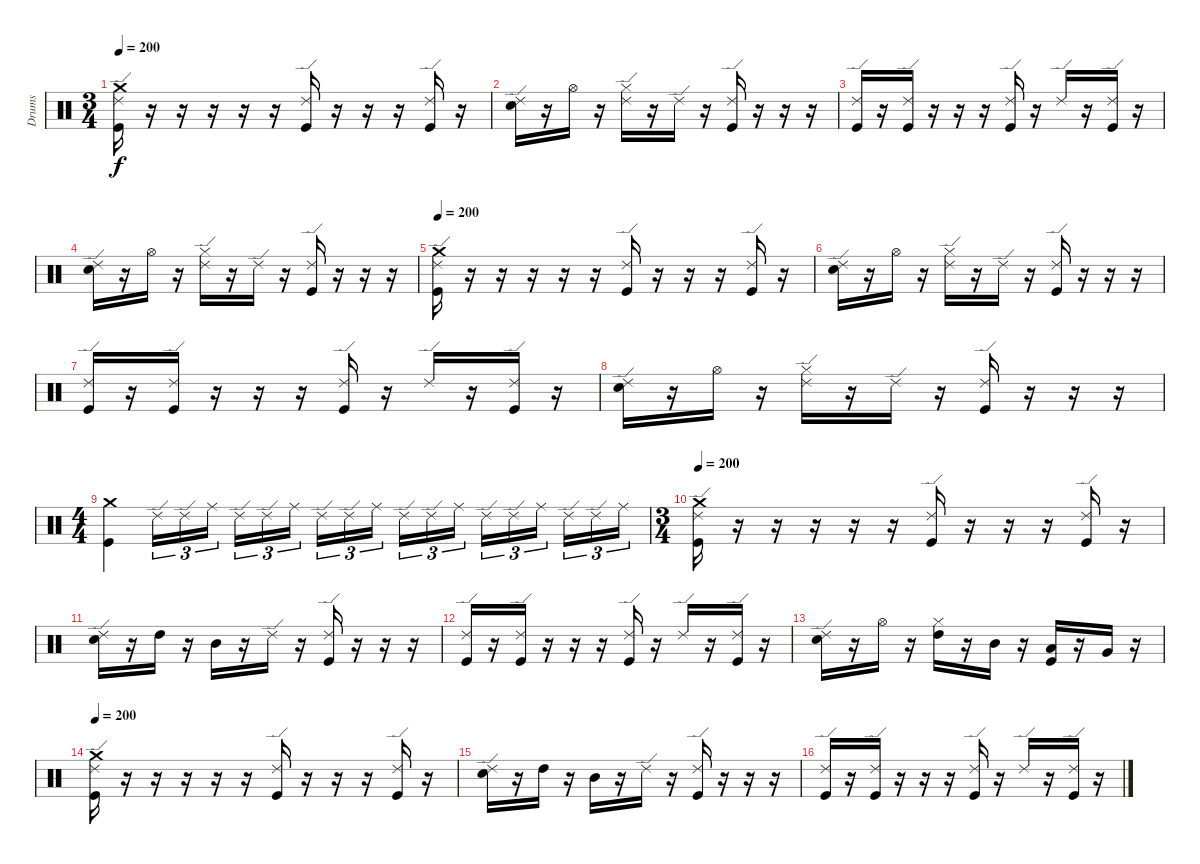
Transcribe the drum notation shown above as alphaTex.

\track ("Drums" "Drums") {instrument percussion}
\staff {score}
\articulation defaults
\ts (3 4)
\tempo 200
\clef neutral
\ks c
("Ride (edge) 2" "Kick (hit)" "Crash medium (hit)").16{dy f} r.16 r.16 r.16 r.16 r.16 ("Ride (edge) 2" "Kick (hit)").16 r.16 r.16 r.16 ("Ride (edge) 2" "Kick (hit)").16 r.16 |
("Ride (edge) 2" "Electric Snare (hit)").16 r.16 "Hi-Hat (open)".16 r.16 ("Ride (edge) 2" "Hi-Hat (closed)").16 r.16 "Ride (edge) 2".16 r.16 ("Ride (edge) 2" "Kick (hit)").16 r.16 r.16 r.16 |
("Ride (edge) 2" "Kick (hit)").16 r.16 ("Ride (edge) 2" "Kick (hit)").16 r.16 r.16 r.16 ("Ride (edge) 2" "Kick (hit)").16 r.16 "Ride (edge) 2".16 r.16 ("Ride (edge) 2" "Kick (hit)").16 r.16 |
("Ride (edge) 2" "Electric Snare (hit)").16 r.16 "Hi-Hat (open)".16 r.16 ("Ride (edge) 2" "Hi-Hat (closed)").16 r.16 "Ride (edge) 2".16 r.16 ("Ride (edge) 2" "Kick (hit)").16 r.16 r.16 r.16 |
\tempo 200
("Ride (edge) 2" "Kick (hit)" "Crash medium (hit)").16 r.16 r.16 r.16 r.16 r.16 ("Ride (edge) 2" "Kick (hit)").16 r.16 r.16 r.16 ("Ride (edge) 2" "Kick (hit)").16 r.16 |
("Ride (edge) 2" "Electric Snare (hit)").16 r.16 "Hi-Hat (open)".16 r.16 ("Ride (edge) 2" "Hi-Hat (closed)").16 r.16 "Ride (edge) 2".16 r.16 ("Ride (edge) 2" "Kick (hit)").16 r.16 r.16 r.16 |
("Ride (edge) 2" "Kick (hit)").16 r.16 ("Ride (edge) 2" "Kick (hit)").16 r.16 r.16 r.16 ("Ride (edge) 2" "Kick (hit)").16 r.16 "Ride (edge) 2".16 r.16 ("Ride (edge) 2" "Kick (hit)").16 r.16 |
("Ride (edge) 2" "Electric Snare (hit)").16 r.16 "Hi-Hat (open)".16 r.16 ("Ride (edge) 2" "Hi-Hat (closed)").16 r.16 "Ride (edge) 2".16 r.16 ("Ride (edge) 2" "Kick (hit)").16 r.16 r.16 r.16 |
\ts (4 4)
("Crash medium (hit)" "Kick (hit)").4 "Ride (edge) 2".16{tu (3 2)} "Ride (edge) 2".16{tu (3 2)} "Ride (middle)".16{tu (3 2)} "Ride (edge) 2".16{tu (3 2)} "Ride (edge) 2".16{tu (3 2)} "Ride (middle)".16{tu (3 2)} "Ride (edge) 2".16{tu (3 2)} "Ride (edge) 2".16{tu (3 2)} "Ride (middle)".16{tu (3 2)} "Ride (edge) 2".16{tu (3 2)} "Ride (edge) 2".16{tu (3 2)} "Ride (middle)".16{tu (3 2)} "Ride (edge) 2".16{tu (3 2)} "Ride (edge) 2".16{tu (3 2)} "Ride (middle)".16{tu (3 2)} "Ride (edge) 2".16{tu (3 2)} "Ride (edge) 2".16{tu (3 2)} "Ride (middle)".16{tu (3 2)} |
\ts (3 4)
\tempo 200
("Ride (edge) 2" "Kick (hit)" "Crash medium (hit)").16 r.16 r.16 r.16 r.16 r.16 ("Ride (edge) 2" "Kick (hit)").16 r.16 r.16 r.16 ("Ride (edge) 2" "Kick (hit)").16 r.16 |
("Ride (edge) 2" "Electric Snare (hit)").16 r.16 "High Tom (hit)".16 r.16 "Mid Tom (hit)".16 r.16 "Ride (edge) 2".16 r.16 ("Ride (edge) 2" "Kick (hit)").16 r.16 r.16 r.16 |
("Ride (edge) 2" "Kick (hit)").16 r.16 ("Ride (edge) 2" "Kick (hit)").16 r.16 r.16 r.16 ("Ride (edge) 2" "Kick (hit)").16 r.16 "Ride (edge) 2".16 r.16 ("Ride (edge) 2" "Kick (hit)").16 r.16 |
("Ride (edge) 2" "Electric Snare (hit)").16 r.16 "Hi-Hat (open)".16 r.16 ("High Tom (hit)" "Hi-Hat (closed)").16 r.16 "Mid Tom (hit)".16 r.16 ("Low Tom (hit)" "Kick (hit)").16 r.16 "Very Low Tom (hit)".16 r.16 |
\tempo 200
("Ride (edge) 2" "Kick (hit)" "Crash medium (hit)").16 r.16 r.16 r.16 r.16 r.16 ("Ride (edge) 2" "Kick (hit)").16 r.16 r.16 r.16 ("Ride (edge) 2" "Kick (hit)").16 r.16 |
("Ride (edge) 2" "Electric Snare (hit)").16 r.16 "High Tom (hit)".16 r.16 "Mid Tom (hit)".16 r.16 "Ride (edge) 2".16 r.16 ("Ride (edge) 2" "Kick (hit)").16 r.16 r.16 r.16 |
("Ride (edge) 2" "Kick (hit)").16 r.16 ("Ride (edge) 2" "Kick (hit)").16 r.16 r.16 r.16 ("Ride (edge) 2" "Kick (hit)").16 r.16 "Ride (edge) 2".16 r.16 ("Ride (edge) 2" "Kick (hit)").16 r.16
